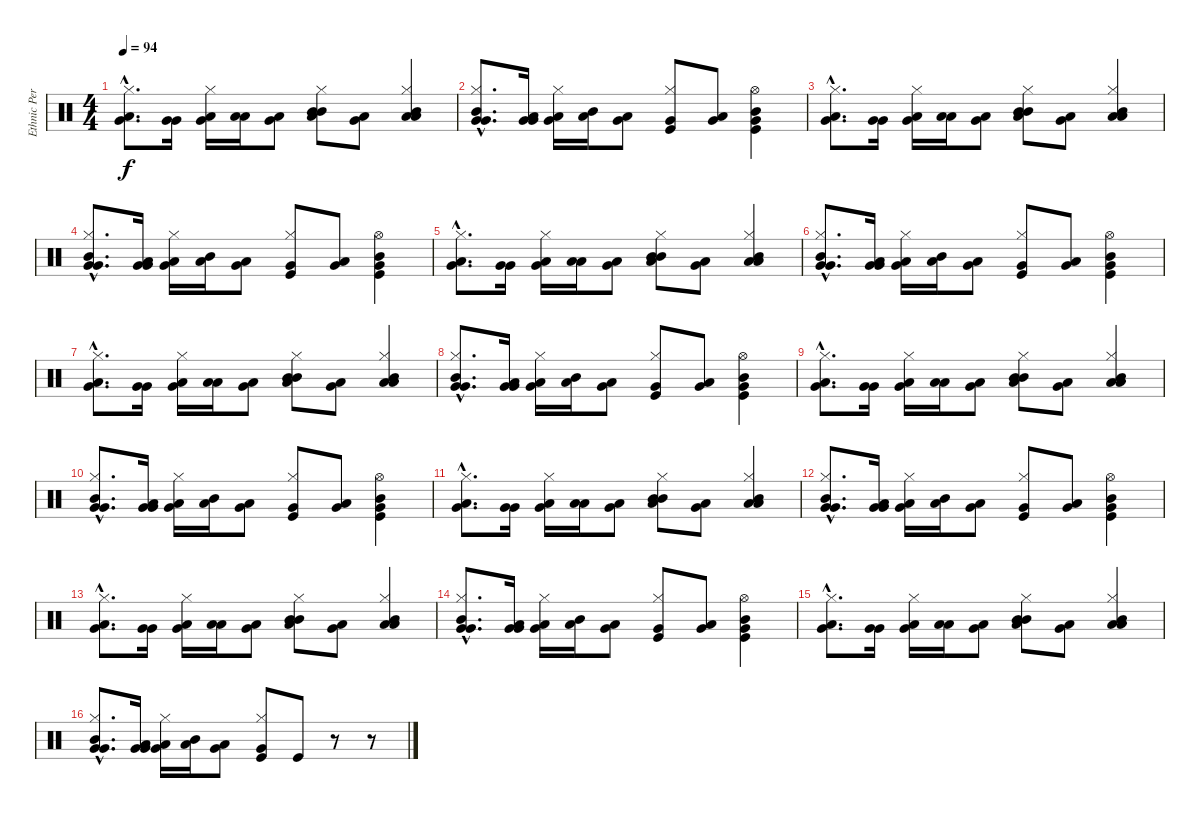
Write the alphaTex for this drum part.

\track ("Ethnic Percussion" "Ethnic Per") {instrument percussion}
\staff {score}
\articulation defaults
\ts (4 4)
\tempo 94
\clef neutral
\ks c
("Very Low Tom (hit)"{hac} "Low Floor Tom (hit)"{hac} "Hi-Hat (closed)"{hac}).8{d dy f} ("Very Low Tom (hit)" "Very Low Tom (hit)").16 ("Very Low Tom (hit)" "Low Floor Tom (hit)" "Hi-Hat (closed)").16 ("Low Tom (hit)" "Low Tom (hit)").16 ("Very Low Tom (hit)" "Low Floor Tom (hit)").8 ("Mid Tom (hit)" "Low Tom (hit)" "Mid Tom (hit)" "Hi-Hat (closed)").8 ("Low Tom (hit)" "Very Low Tom (hit)").8 ("Mid Tom (hit)" "Low Floor Tom (hit)" "Low Tom (hit)" "Hi-Hat (closed)").4 |
("Very Low Tom (hit)"{hac} "Very Low Tom (hit)"{hac} "Mid Tom (hit)"{hac} "Hi-Hat (closed)"{hac}).8{d} ("Very Low Tom (hit)" "Very Low Tom (hit)" "Low Floor Tom (hit)").16 ("Very Low Tom (hit)" "Low Floor Tom (hit)" "Hi-Hat (closed)").16 ("Mid Tom (hit)" "Low Tom (hit)").16 ("Very Low Tom (hit)" "Low Tom (hit)").8 ("Kick (hit)" "Very Low Tom (hit)" "Hi-Hat (closed)").8 ("Low Tom (hit)" "Very Low Tom (hit)").8 ("Very Low Tom (hit)" "Kick (hit)" "Hi-Hat (open)" "Mid Tom (hit)").4 |
("Very Low Tom (hit)"{hac} "Low Floor Tom (hit)"{hac} "Hi-Hat (closed)"{hac}).8{d} ("Very Low Tom (hit)" "Very Low Tom (hit)").16 ("Very Low Tom (hit)" "Low Floor Tom (hit)" "Hi-Hat (closed)").16 ("Low Tom (hit)" "Low Tom (hit)").16 ("Very Low Tom (hit)" "Low Floor Tom (hit)").8 ("Mid Tom (hit)" "Low Tom (hit)" "Mid Tom (hit)" "Hi-Hat (closed)").8 ("Low Tom (hit)" "Very Low Tom (hit)").8 ("Mid Tom (hit)" "Low Floor Tom (hit)" "Low Tom (hit)" "Hi-Hat (closed)").4 |
("Very Low Tom (hit)"{hac} "Very Low Tom (hit)"{hac} "Mid Tom (hit)"{hac} "Hi-Hat (closed)"{hac}).8{d} ("Very Low Tom (hit)" "Very Low Tom (hit)" "Low Floor Tom (hit)").16 ("Very Low Tom (hit)" "Low Floor Tom (hit)" "Hi-Hat (closed)").16 ("Mid Tom (hit)" "Low Tom (hit)").16 ("Very Low Tom (hit)" "Low Tom (hit)").8 ("Kick (hit)" "Very Low Tom (hit)" "Hi-Hat (closed)").8 ("Low Tom (hit)" "Very Low Tom (hit)").8 ("Very Low Tom (hit)" "Kick (hit)" "Hi-Hat (open)" "Mid Tom (hit)").4 |
("Very Low Tom (hit)"{hac} "Low Floor Tom (hit)"{hac} "Hi-Hat (closed)"{hac}).8{d volume 5} ("Very Low Tom (hit)" "Very Low Tom (hit)").16 ("Very Low Tom (hit)" "Low Floor Tom (hit)" "Hi-Hat (closed)").16 ("Low Tom (hit)" "Low Tom (hit)").16 ("Very Low Tom (hit)" "Low Floor Tom (hit)").8 ("Mid Tom (hit)" "Low Tom (hit)" "Mid Tom (hit)" "Hi-Hat (closed)").8 ("Low Tom (hit)" "Very Low Tom (hit)").8 ("Mid Tom (hit)" "Low Floor Tom (hit)" "Low Tom (hit)" "Hi-Hat (closed)").4 |
("Very Low Tom (hit)"{hac} "Very Low Tom (hit)"{hac} "Mid Tom (hit)"{hac} "Hi-Hat (closed)"{hac}).8{d volume 4} ("Very Low Tom (hit)" "Very Low Tom (hit)" "Low Floor Tom (hit)").16 ("Very Low Tom (hit)" "Low Floor Tom (hit)" "Hi-Hat (closed)").16 ("Mid Tom (hit)" "Low Tom (hit)").16 ("Very Low Tom (hit)" "Low Tom (hit)").8 ("Kick (hit)" "Very Low Tom (hit)" "Hi-Hat (closed)").8 ("Low Tom (hit)" "Very Low Tom (hit)").8 ("Very Low Tom (hit)" "Kick (hit)" "Hi-Hat (open)" "Mid Tom (hit)").4 |
("Very Low Tom (hit)"{hac} "Low Floor Tom (hit)"{hac} "Hi-Hat (closed)"{hac}).8{d} ("Very Low Tom (hit)" "Very Low Tom (hit)").16 ("Very Low Tom (hit)" "Low Floor Tom (hit)" "Hi-Hat (closed)").16 ("Low Tom (hit)" "Low Tom (hit)").16 ("Very Low Tom (hit)" "Low Floor Tom (hit)").8 ("Mid Tom (hit)" "Low Tom (hit)" "Mid Tom (hit)" "Hi-Hat (closed)").8 ("Low Tom (hit)" "Very Low Tom (hit)").8 ("Mid Tom (hit)" "Low Floor Tom (hit)" "Low Tom (hit)" "Hi-Hat (closed)").4 |
("Very Low Tom (hit)"{hac} "Very Low Tom (hit)"{hac} "Mid Tom (hit)"{hac} "Hi-Hat (closed)"{hac}).8{d} ("Very Low Tom (hit)" "Very Low Tom (hit)" "Low Floor Tom (hit)").16 ("Very Low Tom (hit)" "Low Floor Tom (hit)" "Hi-Hat (closed)").16 ("Mid Tom (hit)" "Low Tom (hit)").16 ("Very Low Tom (hit)" "Low Tom (hit)").8 ("Kick (hit)" "Very Low Tom (hit)" "Hi-Hat (closed)").8 ("Low Tom (hit)" "Very Low Tom (hit)").8 ("Very Low Tom (hit)" "Kick (hit)" "Hi-Hat (open)" "Mid Tom (hit)").4 |
("Very Low Tom (hit)"{hac} "Low Floor Tom (hit)"{hac} "Hi-Hat (closed)"{hac}).8{d volume 3} ("Very Low Tom (hit)" "Very Low Tom (hit)").16 ("Very Low Tom (hit)" "Low Floor Tom (hit)" "Hi-Hat (closed)").16 ("Low Tom (hit)" "Low Tom (hit)").16 ("Very Low Tom (hit)" "Low Floor Tom (hit)").8 ("Mid Tom (hit)" "Low Tom (hit)" "Mid Tom (hit)" "Hi-Hat (closed)").8 ("Low Tom (hit)" "Very Low Tom (hit)").8 ("Mid Tom (hit)" "Low Floor Tom (hit)" "Low Tom (hit)" "Hi-Hat (closed)").4 |
("Very Low Tom (hit)"{hac} "Very Low Tom (hit)"{hac} "Mid Tom (hit)"{hac} "Hi-Hat (closed)"{hac}).8{d} ("Very Low Tom (hit)" "Very Low Tom (hit)" "Low Floor Tom (hit)").16 ("Very Low Tom (hit)" "Low Floor Tom (hit)" "Hi-Hat (closed)").16 ("Mid Tom (hit)" "Low Tom (hit)").16 ("Very Low Tom (hit)" "Low Tom (hit)").8 ("Kick (hit)" "Very Low Tom (hit)" "Hi-Hat (closed)").8 ("Low Tom (hit)" "Very Low Tom (hit)").8 ("Very Low Tom (hit)" "Kick (hit)" "Hi-Hat (open)" "Mid Tom (hit)").4 |
("Very Low Tom (hit)"{hac} "Low Floor Tom (hit)"{hac} "Hi-Hat (closed)"{hac}).8{d volume 2} ("Very Low Tom (hit)" "Very Low Tom (hit)").16 ("Very Low Tom (hit)" "Low Floor Tom (hit)" "Hi-Hat (closed)").16 ("Low Tom (hit)" "Low Tom (hit)").16 ("Very Low Tom (hit)" "Low Floor Tom (hit)").8 ("Mid Tom (hit)" "Low Tom (hit)" "Mid Tom (hit)" "Hi-Hat (closed)").8 ("Low Tom (hit)" "Very Low Tom (hit)").8 ("Mid Tom (hit)" "Low Floor Tom (hit)" "Low Tom (hit)" "Hi-Hat (closed)").4 |
("Very Low Tom (hit)"{hac} "Very Low Tom (hit)"{hac} "Mid Tom (hit)"{hac} "Hi-Hat (closed)"{hac}).8{d} ("Very Low Tom (hit)" "Very Low Tom (hit)" "Low Floor Tom (hit)").16 ("Very Low Tom (hit)" "Low Floor Tom (hit)" "Hi-Hat (closed)").16 ("Mid Tom (hit)" "Low Tom (hit)").16 ("Very Low Tom (hit)" "Low Tom (hit)").8 ("Kick (hit)" "Very Low Tom (hit)" "Hi-Hat (closed)").8 ("Low Tom (hit)" "Very Low Tom (hit)").8 ("Very Low Tom (hit)" "Kick (hit)" "Hi-Hat (open)" "Mid Tom (hit)").4 |
("Very Low Tom (hit)"{hac} "Low Floor Tom (hit)"{hac} "Hi-Hat (closed)"{hac}).8{d} ("Very Low Tom (hit)" "Very Low Tom (hit)").16 ("Very Low Tom (hit)" "Low Floor Tom (hit)" "Hi-Hat (closed)").16 ("Low Tom (hit)" "Low Tom (hit)").16 ("Very Low Tom (hit)" "Low Floor Tom (hit)").8 ("Mid Tom (hit)" "Low Tom (hit)" "Mid Tom (hit)" "Hi-Hat (closed)").8 ("Low Tom (hit)" "Very Low Tom (hit)").8 ("Mid Tom (hit)" "Low Floor Tom (hit)" "Low Tom (hit)" "Hi-Hat (closed)").4 |
("Very Low Tom (hit)"{hac} "Very Low Tom (hit)"{hac} "Mid Tom (hit)"{hac} "Hi-Hat (closed)"{hac}).8{d volume 1} ("Very Low Tom (hit)" "Very Low Tom (hit)" "Low Floor Tom (hit)").16 ("Very Low Tom (hit)" "Low Floor Tom (hit)" "Hi-Hat (closed)").16 ("Mid Tom (hit)" "Low Tom (hit)").16 ("Very Low Tom (hit)" "Low Tom (hit)").8 ("Kick (hit)" "Very Low Tom (hit)" "Hi-Hat (closed)").8 ("Low Tom (hit)" "Very Low Tom (hit)").8 ("Very Low Tom (hit)" "Kick (hit)" "Hi-Hat (open)" "Mid Tom (hit)").4 |
("Very Low Tom (hit)"{hac} "Low Floor Tom (hit)"{hac} "Hi-Hat (closed)"{hac}).8{d} ("Very Low Tom (hit)" "Very Low Tom (hit)").16 ("Very Low Tom (hit)" "Low Floor Tom (hit)" "Hi-Hat (closed)").16 ("Low Tom (hit)" "Low Tom (hit)").16 ("Very Low Tom (hit)" "Low Floor Tom (hit)").8 ("Mid Tom (hit)" "Low Tom (hit)" "Mid Tom (hit)" "Hi-Hat (closed)").8 ("Low Tom (hit)" "Very Low Tom (hit)").8 ("Mid Tom (hit)" "Low Floor Tom (hit)" "Low Tom (hit)" "Hi-Hat (closed)").4 |
("Very Low Tom (hit)"{hac} "Very Low Tom (hit)"{hac} "Mid Tom (hit)"{hac} "Hi-Hat (closed)"{hac}).8{d} ("Very Low Tom (hit)" "Very Low Tom (hit)" "Low Floor Tom (hit)").16 ("Very Low Tom (hit)" "Low Floor Tom (hit)" "Hi-Hat (closed)").16 ("Mid Tom (hit)" "Low Tom (hit)").16 ("Very Low Tom (hit)" "Low Tom (hit)").8 ("Kick (hit)" "Very Low Tom (hit)" "Hi-Hat (closed)").8 "Kick (hit)".8 r.8 r.8
